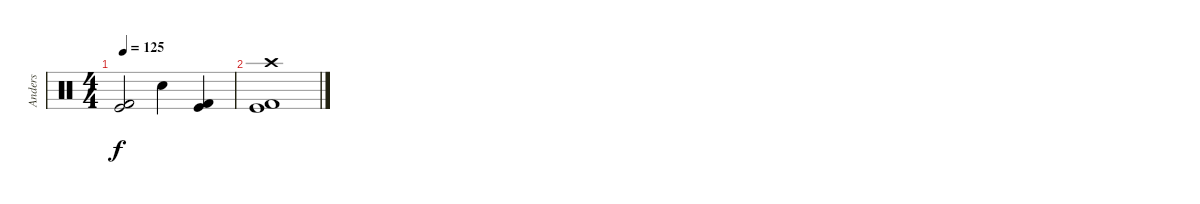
\track ("Anders" "Anders") {instrument percussion}
\staff {score}
\articulation defaults
\ts (4 4)
\tempo 125
\clef neutral
\ks c
("Kick (hit) 2" "Kick (hit)").2{dy f} "Electric Snare (hit)".4 ("Kick (hit) 2" "Kick (hit)").4 |
("Crash high (hit)" "Kick (hit) 2" "Kick (hit)").1
